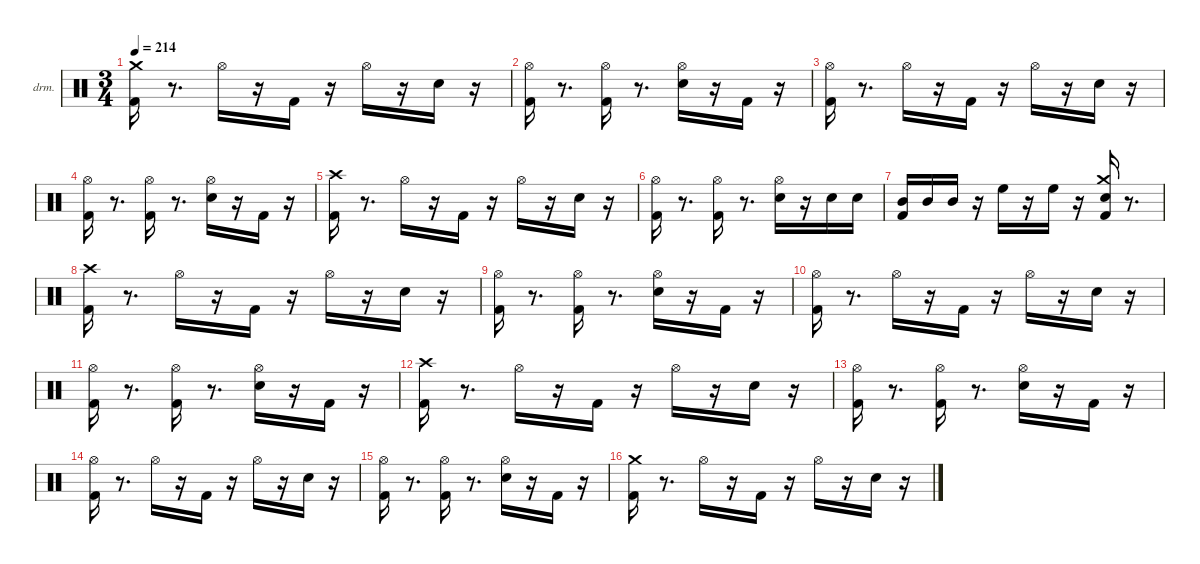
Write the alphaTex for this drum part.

\hideDynamics
\bracketExtendMode nobrackets
\firstSystemTrackNameOrientation horizontal
\otherSystemsTrackNameOrientation horizontal
\track ("EZdrummer 3" "drm.") {instrument percussion}
\staff {score}
\articulation defaults
\ts (3 4)
\tempo 214
\clef neutral
\ks aminor
("Kick (hit) 2" "Crash medium (hit)").16{dy fff} r.8{d} "Hi-Hat (open)"{acc #}.16{dy mf} r.16 "Kick (hit) 2".16{dy ff} r.16 "Hi-Hat (open)"{acc #}.16{dy f} r.16 "Snare (hit) 2".16{dy ff} r.16 |
("Kick (hit) 2" "Hi-Hat (open)"{acc #}).16 r.8{d} ("Kick (hit) 2" "Hi-Hat (open)"{acc #}).16{dy f} r.8{d} ("Snare (hit) 2" "Hi-Hat (open)"{acc #}).16 r.16 "Kick (hit) 2".16{dy mp} r.16 |
("Kick (hit) 2" "Hi-Hat (open)"{acc #}).16{dy fff} r.8{d} "Hi-Hat (open)"{acc #}.16{dy mf} r.16 "Kick (hit) 2".16{dy ff} r.16 "Hi-Hat (open)"{acc #}.16{dy f} r.16 "Snare (hit) 2".16{dy ff} r.16 |
("Kick (hit) 2" "Hi-Hat (open)"{acc #}).16{dy fff} r.8{d} ("Kick (hit) 2" "Hi-Hat (open)"{acc #}).16{dy f} r.8{d} ("Snare (hit) 2" "Hi-Hat (open)"{acc #}).16 r.16 "Kick (hit) 2".16{dy mp} r.16 |
("Kick (hit) 2" "Crash high (hit)"{acc #}).16{dy ff} r.8{d} "Hi-Hat (open)"{acc #}.16{dy f} r.16 "Kick (hit) 2".16{dy ff} r.16 "Hi-Hat (open)"{acc #}.16 r.16 "Snare (hit) 2".16 r.16 |
("Kick (hit) 2" "Hi-Hat (open)"{acc #}).16{dy f} r.8{d} ("Kick (hit) 2" "Hi-Hat (open)"{acc #}).16{dy mf} r.8{d} ("Snare (hit) 2" "Hi-Hat (open)"{acc #}).16{dy fff} r.16 "Snare (hit) 2".16{dy mf} "Snare (hit) 2".16{dy pp} |
("Kick (hit) 2" "Mid Tom (hit)").16{dy ff} "Mid Tom (hit)".16{dy mf} "Mid Tom (hit)".16{dy fff} r.16 "High Floor Tom (hit)".16{dy ff} r.16 "High Floor Tom (hit)".16{dy mf} r.16 ("Kick (hit) 2" "Snare (hit) 2" "Crash medium (hit)").16{dy f} r.8{d} |
("Kick (hit) 2" "Crash high (hit)"{acc #}).16{dy fff} r.8{d} "Hi-Hat (open)"{acc #}.16{dy mf} r.16 "Kick (hit) 2".16{dy ff} r.16 "Hi-Hat (open)"{acc #}.16{dy f} r.16 "Snare (hit) 2".16{dy ff} r.16 |
("Kick (hit) 2" "Hi-Hat (open)"{acc #}).16 r.8{d} ("Kick (hit) 2" "Hi-Hat (open)"{acc #}).16{dy f} r.8{d} ("Snare (hit) 2" "Hi-Hat (open)"{acc #}).16 r.16 "Kick (hit) 2".16{dy mp} r.16 |
("Kick (hit) 2" "Hi-Hat (open)"{acc #}).16{dy fff} r.8{d} "Hi-Hat (open)"{acc #}.16{dy mf} r.16 "Kick (hit) 2".16{dy ff} r.16 "Hi-Hat (open)"{acc #}.16{dy f} r.16 "Snare (hit) 2".16{dy ff} r.16 |
("Kick (hit) 2" "Hi-Hat (open)"{acc #}).16{dy fff} r.8{d} ("Kick (hit) 2" "Hi-Hat (open)"{acc #}).16{dy ff} r.8{d} ("Snare (hit) 2" "Hi-Hat (open)"{acc #}).16{dy f} r.16 "Kick (hit) 2".16{dy mp} r.16 |
("Kick (hit) 2" "Crash high (hit)"{acc #}).16{dy fff} r.8{d} "Hi-Hat (open)"{acc #}.16{dy mf} r.16 "Kick (hit) 2".16{dy ff} r.16 "Hi-Hat (open)"{acc #}.16{dy f} r.16 "Snare (hit) 2".16{dy ff} r.16 |
("Kick (hit) 2" "Hi-Hat (open)"{acc #}).16 r.8{d} ("Kick (hit) 2" "Hi-Hat (open)"{acc #}).16{dy f} r.8{d} ("Snare (hit) 2" "Hi-Hat (open)"{acc #}).16 r.16 "Kick (hit) 2".16{dy mp} r.16 |
("Kick (hit) 2" "Hi-Hat (open)"{acc #}).16{dy fff} r.8{d} "Hi-Hat (open)"{acc #}.16{dy mf} r.16 "Kick (hit) 2".16{dy ff} r.16 "Hi-Hat (open)"{acc #}.16{dy f} r.16 "Snare (hit) 2".16{dy ff} r.16 |
("Kick (hit) 2" "Hi-Hat (open)"{acc #}).16{dy fff} r.8{d} ("Kick (hit) 2" "Hi-Hat (open)"{acc #}).16{dy ff} r.8{d} ("Snare (hit) 2" "Hi-Hat (open)"{acc #}).16{dy f} r.16 "Kick (hit) 2".16{dy mp} r.16 |
("Kick (hit) 2" "Crash medium (hit)").16{dy fff} r.8{d} "Hi-Hat (open)"{acc #}.16{dy mf} r.16 "Kick (hit) 2".16{dy f} r.16 "Hi-Hat (open)"{acc #}.16 r.16 "Snare (hit) 2".16{dy ff} r.16
